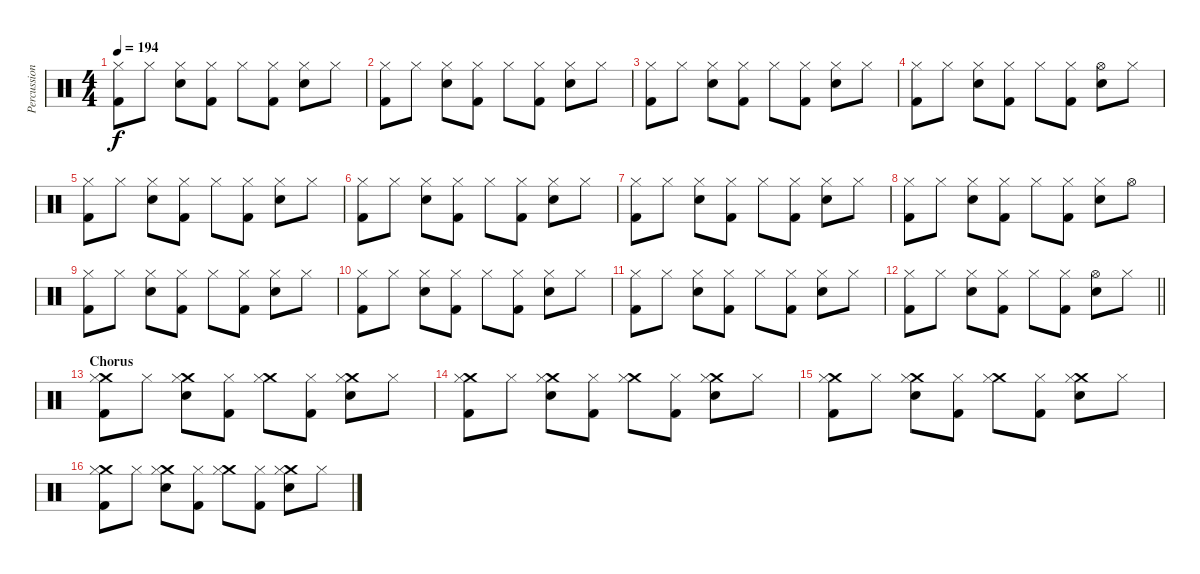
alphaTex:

\track ("Percussion" "Percussion") {instrument percussion}
\staff {score}
\articulation defaults
\ts (4 4)
\tempo 194
\clef neutral
\ks c
("Hi-Hat (closed)" "Kick (hit) 2").8{dy f} "Hi-Hat (closed)".8 ("Hi-Hat (closed)" "Snare (hit) 2").8 ("Hi-Hat (closed)" "Kick (hit) 2").8 "Hi-Hat (closed)".8 ("Hi-Hat (closed)" "Kick (hit) 2").8 ("Hi-Hat (closed)" "Snare (hit) 2").8 "Hi-Hat (closed)".8 |
("Hi-Hat (closed)" "Kick (hit) 2").8 "Hi-Hat (closed)".8 ("Hi-Hat (closed)" "Snare (hit) 2").8 ("Hi-Hat (closed)" "Kick (hit) 2").8 "Hi-Hat (closed)".8 ("Hi-Hat (closed)" "Kick (hit) 2").8 ("Hi-Hat (closed)" "Snare (hit) 2").8 "Hi-Hat (closed)".8 |
("Hi-Hat (closed)" "Kick (hit) 2").8 "Hi-Hat (closed)".8 ("Hi-Hat (closed)" "Snare (hit) 2").8 ("Hi-Hat (closed)" "Kick (hit) 2").8 "Hi-Hat (closed)".8 ("Hi-Hat (closed)" "Kick (hit) 2").8 ("Hi-Hat (closed)" "Snare (hit) 2").8 "Hi-Hat (closed)".8 |
("Hi-Hat (closed)" "Kick (hit) 2").8 "Hi-Hat (closed)".8 ("Hi-Hat (closed)" "Snare (hit) 2").8 ("Hi-Hat (closed)" "Kick (hit) 2").8 "Hi-Hat (closed)".8 ("Hi-Hat (closed)" "Kick (hit) 2").8 ("Hi-Hat (open)" "Snare (hit) 2").8 "Hi-Hat (closed)".8 |
("Hi-Hat (closed)" "Kick (hit) 2").8 "Hi-Hat (closed)".8 ("Hi-Hat (closed)" "Snare (hit) 2").8 ("Hi-Hat (closed)" "Kick (hit) 2").8 "Hi-Hat (closed)".8 ("Hi-Hat (closed)" "Kick (hit) 2").8 ("Hi-Hat (closed)" "Snare (hit) 2").8 "Hi-Hat (closed)".8 |
("Hi-Hat (closed)" "Kick (hit) 2").8 "Hi-Hat (closed)".8 ("Hi-Hat (closed)" "Snare (hit) 2").8 ("Hi-Hat (closed)" "Kick (hit) 2").8 "Hi-Hat (closed)".8 ("Hi-Hat (closed)" "Kick (hit) 2").8 ("Hi-Hat (closed)" "Snare (hit) 2").8 "Hi-Hat (closed)".8 |
("Hi-Hat (closed)" "Kick (hit) 2").8 "Hi-Hat (closed)".8 ("Hi-Hat (closed)" "Snare (hit) 2").8 ("Hi-Hat (closed)" "Kick (hit) 2").8 "Hi-Hat (closed)".8 ("Hi-Hat (closed)" "Kick (hit) 2").8 ("Hi-Hat (closed)" "Snare (hit) 2").8 "Hi-Hat (closed)".8 |
("Hi-Hat (closed)" "Kick (hit) 2").8 "Hi-Hat (closed)".8 ("Hi-Hat (closed)" "Snare (hit) 2").8 ("Hi-Hat (closed)" "Kick (hit) 2").8 "Hi-Hat (closed)".8 ("Hi-Hat (closed)" "Kick (hit) 2").8 ("Hi-Hat (closed)" "Snare (hit) 2").8 "Hi-Hat (open)".8 |
("Hi-Hat (closed)" "Kick (hit) 2").8 "Hi-Hat (closed)".8 ("Hi-Hat (closed)" "Snare (hit) 2").8 ("Hi-Hat (closed)" "Kick (hit) 2").8 "Hi-Hat (closed)".8 ("Hi-Hat (closed)" "Kick (hit) 2").8 ("Hi-Hat (closed)" "Snare (hit) 2").8 "Hi-Hat (closed)".8 |
("Hi-Hat (closed)" "Kick (hit) 2").8 "Hi-Hat (closed)".8 ("Hi-Hat (closed)" "Snare (hit) 2").8 ("Hi-Hat (closed)" "Kick (hit) 2").8 "Hi-Hat (closed)".8 ("Hi-Hat (closed)" "Kick (hit) 2").8 ("Hi-Hat (closed)" "Snare (hit) 2").8 "Hi-Hat (closed)".8 |
("Hi-Hat (closed)" "Kick (hit) 2").8 "Hi-Hat (closed)".8 ("Hi-Hat (closed)" "Snare (hit) 2").8 ("Hi-Hat (closed)" "Kick (hit) 2").8 "Hi-Hat (closed)".8 ("Hi-Hat (closed)" "Kick (hit) 2").8 ("Hi-Hat (closed)" "Snare (hit) 2").8 "Hi-Hat (closed)".8 |
\barLineRight lightlight
("Hi-Hat (closed)" "Kick (hit) 2").8 "Hi-Hat (closed)".8 ("Hi-Hat (closed)" "Snare (hit) 2").8 ("Hi-Hat (closed)" "Kick (hit) 2").8 "Hi-Hat (closed)".8 ("Hi-Hat (closed)" "Kick (hit) 2").8 ("Hi-Hat (open)" "Snare (hit) 2").8 "Hi-Hat (closed)".8 |
\section ("" "Chorus")
("Crash medium (hit)" "Kick (hit) 2" "Hi-Hat (closed)").8 "Hi-Hat (closed)".8 ("Crash medium (hit)" "Snare (hit) 2" "Hi-Hat (closed)").8 ("Kick (hit) 2" "Hi-Hat (closed)").8 ("Crash medium (hit)" "Hi-Hat (closed)").8 ("Kick (hit) 2" "Hi-Hat (closed)").8 ("Crash medium (hit)" "Snare (hit) 2" "Hi-Hat (closed)").8 "Hi-Hat (closed)".8 |
("Crash medium (hit)" "Kick (hit) 2" "Hi-Hat (closed)").8 "Hi-Hat (closed)".8 ("Crash medium (hit)" "Snare (hit) 2" "Hi-Hat (closed)").8 ("Kick (hit) 2" "Hi-Hat (closed)").8 ("Crash medium (hit)" "Hi-Hat (closed)").8 ("Kick (hit) 2" "Hi-Hat (closed)").8 ("Crash medium (hit)" "Snare (hit) 2" "Hi-Hat (closed)").8 "Hi-Hat (closed)".8 |
("Crash medium (hit)" "Kick (hit) 2" "Hi-Hat (closed)").8 "Hi-Hat (closed)".8 ("Crash medium (hit)" "Snare (hit) 2" "Hi-Hat (closed)").8 ("Kick (hit) 2" "Hi-Hat (closed)").8 ("Crash medium (hit)" "Hi-Hat (closed)").8 ("Kick (hit) 2" "Hi-Hat (closed)").8 ("Crash medium (hit)" "Snare (hit) 2" "Hi-Hat (closed)").8 "Hi-Hat (closed)".8 |
("Crash medium (hit)" "Kick (hit) 2" "Hi-Hat (closed)").8 "Hi-Hat (closed)".8 ("Crash medium (hit)" "Snare (hit) 2" "Hi-Hat (closed)").8 ("Kick (hit) 2" "Hi-Hat (closed)").8 ("Crash medium (hit)" "Hi-Hat (closed)").8 ("Kick (hit) 2" "Hi-Hat (closed)").8 ("Crash medium (hit)" "Snare (hit) 2" "Hi-Hat (closed)").8 "Hi-Hat (closed)".8
